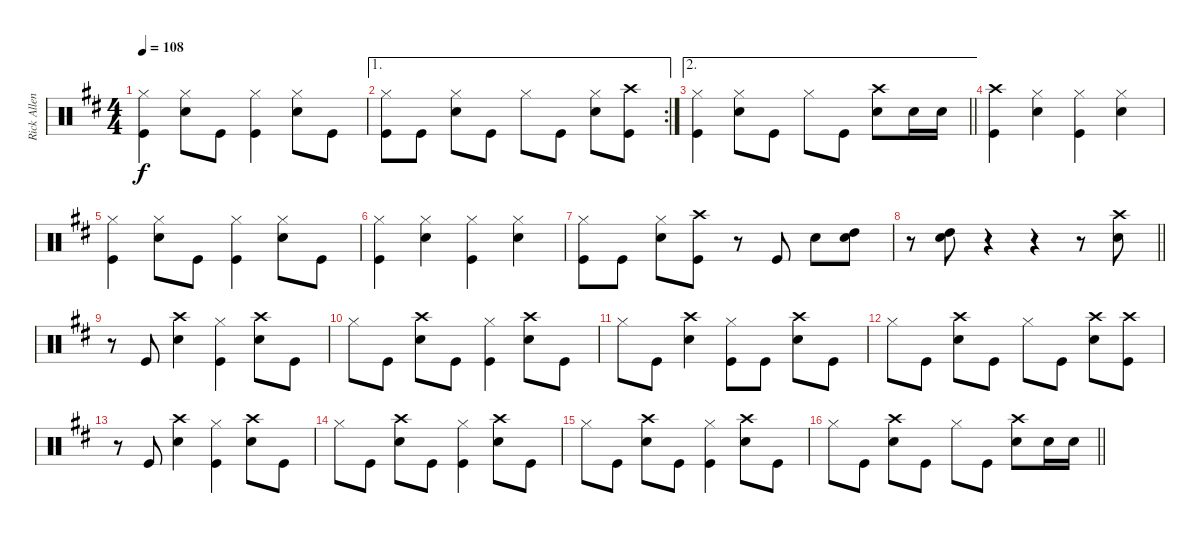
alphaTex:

\track ("Rick Allen" "Rick Allen") {instrument percussion}
\staff {score}
\articulation defaults
\ts (4 4)
\tempo 108
\clef neutral
\ks d
("Hi-Hat (closed)" "Kick (hit)").4{dy f} ("Hi-Hat (closed)" "Snare (hit) 2").8 "Kick (hit)".8 ("Hi-Hat (closed)" "Kick (hit)").4 ("Hi-Hat (closed)" "Snare (hit) 2").8 "Kick (hit)".8 |
\ae 1
\rc 2
("Hi-Hat (closed)" "Kick (hit)").8 "Kick (hit)".8 ("Hi-Hat (closed)" "Snare (hit) 2").8 "Kick (hit)".8 "Hi-Hat (closed)".8 "Kick (hit)".8 ("Hi-Hat (closed)" "Snare (hit) 2").8 ("Crash high (hit)" "Kick (hit)").8 |
\ae 2
\barLineRight lightlight
("Hi-Hat (closed)" "Kick (hit)").4 ("Hi-Hat (closed)" "Snare (hit) 2").8 "Kick (hit)".8 "Hi-Hat (closed)".8 "Kick (hit)".8 ("Crash high (hit)" "Snare (hit) 2").8 "Snare (hit) 2".16 "Snare (hit) 2".16 |
("Crash high (hit)" "Kick (hit)").4 ("Hi-Hat (closed)" "Snare (hit) 2").4 ("Hi-Hat (closed)" "Kick (hit)").4 ("Hi-Hat (closed)" "Snare (hit) 2").4 |
("Hi-Hat (closed)" "Kick (hit)").4 ("Hi-Hat (closed)" "Snare (hit) 2").8 "Kick (hit)".8 ("Hi-Hat (closed)" "Kick (hit)").4 ("Hi-Hat (closed)" "Snare (hit) 2").8 "Kick (hit)".8 |
("Hi-Hat (closed)" "Kick (hit)").4 ("Hi-Hat (closed)" "Snare (hit) 2").4 ("Hi-Hat (closed)" "Kick (hit)").4 ("Hi-Hat (closed)" "Snare (hit) 2").4 |
("Hi-Hat (closed)" "Kick (hit)").8 "Kick (hit)".8 ("Hi-Hat (closed)" "Snare (hit) 2").8 ("Crash high (hit)" "Kick (hit)").8 r.8 "Kick (hit)".8 "Snare (hit) 2".8 ("High Tom (hit)" "Snare (hit) 2").8 |
\barLineRight lightlight
r.8 ("High Tom (hit)" "Snare (hit) 2").8 r.4 r.4 r.8 ("Crash high (hit)" "Snare (hit) 2").8 |
r.8 "Kick (hit)".8 ("Crash high (hit)" "Snare (hit) 2").4 ("Hi-Hat (closed)" "Kick (hit)").4 ("Crash high (hit)" "Snare (hit) 2").8 "Kick (hit)".8 |
"Hi-Hat (closed)".8 "Kick (hit)".8 ("Crash high (hit)" "Snare (hit) 2").8 "Kick (hit)".8 ("Hi-Hat (closed)" "Kick (hit)").4 ("Crash high (hit)" "Snare (hit) 2").8 "Kick (hit)".8 |
"Hi-Hat (closed)".8 "Kick (hit)".8 ("Crash high (hit)" "Snare (hit) 2").4 ("Hi-Hat (closed)" "Kick (hit)").8 "Kick (hit)".8 ("Crash high (hit)" "Snare (hit) 2").8 "Kick (hit)".8 |
"Hi-Hat (closed)".8 "Kick (hit)".8 ("Crash high (hit)" "Snare (hit) 2").8 "Kick (hit)".8 "Hi-Hat (closed)".8 "Kick (hit)".8 ("Crash high (hit)" "Snare (hit) 2").8 ("Crash high (hit)" "Kick (hit)").8 |
r.8 "Kick (hit)".8 ("Crash high (hit)" "Snare (hit) 2").4 ("Hi-Hat (closed)" "Kick (hit)").4 ("Crash high (hit)" "Snare (hit) 2").8 "Kick (hit)".8 |
"Hi-Hat (closed)".8 "Kick (hit)".8 ("Crash high (hit)" "Snare (hit) 2").8 "Kick (hit)".8 ("Hi-Hat (closed)" "Kick (hit)").4 ("Crash high (hit)" "Snare (hit) 2").8 "Kick (hit)".8 |
"Hi-Hat (closed)".8 "Kick (hit)".8 ("Crash high (hit)" "Snare (hit) 2").8 "Kick (hit)".8 ("Hi-Hat (closed)" "Kick (hit)").4 ("Crash high (hit)" "Snare (hit) 2").8 "Kick (hit)".8 |
\barLineRight lightlight "Hi-Hat (closed)".8 "Kick (hit)".8
("Crash high (hit)" "Snare (hit) 2").8 "Kick (hit)".8 "Hi-Hat (closed)".8 "Kick (hit)".8 ("Crash high (hit)" "Snare (hit) 2").8 "Snare (hit) 2".16 "Snare (hit) 2".16
